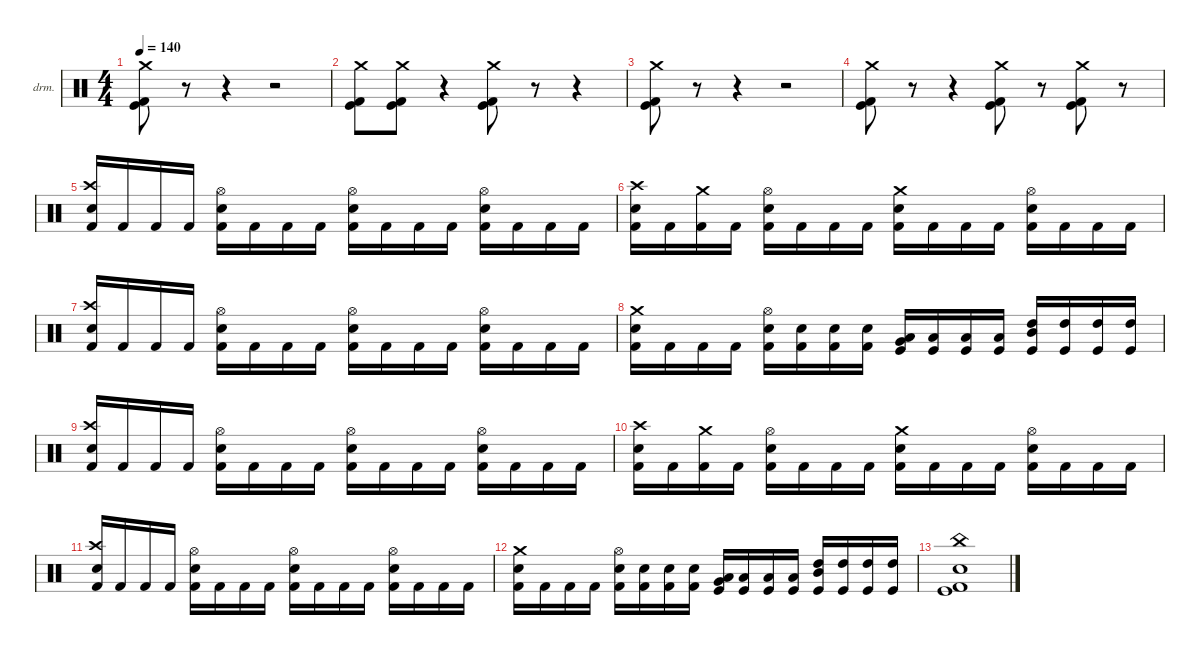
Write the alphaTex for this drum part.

\defaultSystemsLayout 4
\hideDynamics
\bracketExtendMode nobrackets
\firstSystemTrackNameOrientation horizontal
\otherSystemsTrackNameOrientation horizontal
\track ("Drumkit" "drm.") {instrument percussion}
\staff {score}
\articulation defaults
\ts (4 4)
\beaming (8 2 2 2 2)
\tempo 140
\clef neutral
\ks c
("Crash medium (hit)" "Kick (hit) 2" "Kick (hit)").8{dy f} r.8 r.4 r.2 |
("Crash medium (hit)" "Kick (hit) 2" "Kick (hit)").8 ("Crash medium (hit)" "Kick (hit) 2" "Kick (hit)").8 r.4 ("Crash medium (hit)" "Kick (hit) 2" "Kick (hit)").8 r.8 r.4 |
("Crash medium (hit)" "Kick (hit) 2" "Kick (hit)").8 r.8 r.4 r.2 |
("Crash medium (hit)" "Kick (hit) 2" "Kick (hit)").8 r.8 r.4 ("Crash medium (hit)" "Kick (hit) 2" "Kick (hit)").8 r.8 ("Crash medium (hit)" "Kick (hit) 2" "Kick (hit)").8 r.8 |
("Crash high (hit)" "Snare (hit) 2" "Kick (hit) 2").16 "Kick (hit) 2".16 "Kick (hit) 2".16 "Kick (hit) 2".16 ("Hi-Hat (open)" "Snare (hit) 2" "Kick (hit) 2").16 "Kick (hit) 2".16 "Kick (hit) 2".16 "Kick (hit) 2".16 ("Hi-Hat (open)" "Snare (hit) 2" "Kick (hit) 2").16 "Kick (hit) 2".16 "Kick (hit) 2".16 "Kick (hit) 2".16 ("Hi-Hat (open)" "Snare (hit) 2" "Kick (hit) 2").16 "Kick (hit) 2".16 "Kick (hit) 2".16 "Kick (hit) 2".16 |
("Crash high (hit)" "Snare (hit) 2" "Kick (hit) 2").16 "Kick (hit) 2".16 ("Kick (hit) 2" "Crash medium (hit)").16 "Kick (hit) 2".16 ("Hi-Hat (open)" "Snare (hit) 2" "Kick (hit) 2").16 "Kick (hit) 2".16 "Kick (hit) 2".16 "Kick (hit) 2".16 ("Snare (hit) 2" "Kick (hit) 2" "Crash medium (hit)").16 "Kick (hit) 2".16 "Kick (hit) 2".16 "Kick (hit) 2".16 ("Hi-Hat (open)" "Snare (hit) 2" "Kick (hit) 2").16 "Kick (hit) 2".16 "Kick (hit) 2".16 "Kick (hit) 2".16 |
("Crash high (hit)" "Snare (hit) 2" "Kick (hit) 2").16 "Kick (hit) 2".16 "Kick (hit) 2".16 "Kick (hit) 2".16 ("Hi-Hat (open)" "Snare (hit) 2" "Kick (hit) 2").16 "Kick (hit) 2".16 "Kick (hit) 2".16 "Kick (hit) 2".16 ("Hi-Hat (open)" "Snare (hit) 2" "Kick (hit) 2").16 "Kick (hit) 2".16 "Kick (hit) 2".16 "Kick (hit) 2".16 ("Hi-Hat (open)" "Snare (hit) 2" "Kick (hit) 2").16 "Kick (hit) 2".16 "Kick (hit) 2".16 "Kick (hit) 2".16 |
("Snare (hit) 2" "Kick (hit) 2" "Crash medium (hit)").16 "Kick (hit) 2".16 "Kick (hit) 2".16 "Kick (hit) 2".16 ("Hi-Hat (open)" "Snare (hit) 2" "Kick (hit) 2").16 ("Kick (hit) 2" "Snare (hit) 2").16 ("Kick (hit) 2" "Snare (hit) 2").16 ("Kick (hit) 2" "Snare (hit) 2").16 ("Kick (hit)" "Very Low Tom (hit)" "Low Tom (hit)").16 ("Kick (hit)" "Low Tom (hit)").16 ("Kick (hit)" "Low Tom (hit)").16 ("Kick (hit)" "Low Tom (hit)").16 ("High Tom (hit)" "Mid Tom (hit)" "Kick (hit)").16 ("Kick (hit)" "High Tom (hit)").16 ("High Tom (hit)" "Kick (hit)").16 ("High Tom (hit)" "Kick (hit)").16 |
("Crash high (hit)" "Snare (hit) 2" "Kick (hit) 2").16 "Kick (hit) 2".16 "Kick (hit) 2".16 "Kick (hit) 2".16 ("Hi-Hat (open)" "Snare (hit) 2" "Kick (hit) 2").16 "Kick (hit) 2".16 "Kick (hit) 2".16 "Kick (hit) 2".16 ("Hi-Hat (open)" "Snare (hit) 2" "Kick (hit) 2").16 "Kick (hit) 2".16 "Kick (hit) 2".16 "Kick (hit) 2".16 ("Hi-Hat (open)" "Snare (hit) 2" "Kick (hit) 2").16 "Kick (hit) 2".16 "Kick (hit) 2".16 "Kick (hit) 2".16 |
("Crash high (hit)" "Snare (hit) 2" "Kick (hit) 2").16 "Kick (hit) 2".16 ("Kick (hit) 2" "Crash medium (hit)").16 "Kick (hit) 2".16 ("Hi-Hat (open)" "Snare (hit) 2" "Kick (hit) 2").16 "Kick (hit) 2".16 "Kick (hit) 2".16 "Kick (hit) 2".16 ("Snare (hit) 2" "Kick (hit) 2" "Crash medium (hit)").16 "Kick (hit) 2".16 "Kick (hit) 2".16 "Kick (hit) 2".16 ("Hi-Hat (open)" "Snare (hit) 2" "Kick (hit) 2").16 "Kick (hit) 2".16 "Kick (hit) 2".16 "Kick (hit) 2".16 |
("Crash high (hit)" "Snare (hit) 2" "Kick (hit) 2").16 "Kick (hit) 2".16 "Kick (hit) 2".16 "Kick (hit) 2".16 ("Hi-Hat (open)" "Snare (hit) 2" "Kick (hit) 2").16 "Kick (hit) 2".16 "Kick (hit) 2".16 "Kick (hit) 2".16 ("Hi-Hat (open)" "Snare (hit) 2" "Kick (hit) 2").16 "Kick (hit) 2".16 "Kick (hit) 2".16 "Kick (hit) 2".16 ("Hi-Hat (open)" "Snare (hit) 2" "Kick (hit) 2").16 "Kick (hit) 2".16 "Kick (hit) 2".16 "Kick (hit) 2".16 |
("Snare (hit) 2" "Kick (hit) 2" "Crash medium (hit)").16 "Kick (hit) 2".16 "Kick (hit) 2".16 "Kick (hit) 2".16 ("Hi-Hat (open)" "Snare (hit) 2" "Kick (hit) 2").16 ("Kick (hit) 2" "Snare (hit) 2").16 ("Kick (hit) 2" "Snare (hit) 2").16 ("Kick (hit) 2" "Snare (hit) 2").16 ("Kick (hit)" "Very Low Tom (hit)" "Low Tom (hit)").16 ("Kick (hit)" "Low Tom (hit)").16 ("Kick (hit)" "Low Tom (hit)").16 ("Kick (hit)" "Low Tom (hit)").16 ("High Tom (hit)" "Mid Tom (hit)" "Kick (hit)").16 ("Kick (hit)" "High Tom (hit)").16 ("High Tom (hit)" "Kick (hit)").16 ("High Tom (hit)" "Kick (hit)").16 |
("China (hit)" "Snare (hit) 2" "Kick (hit)" "Kick (hit) 2").1{dy mf}
